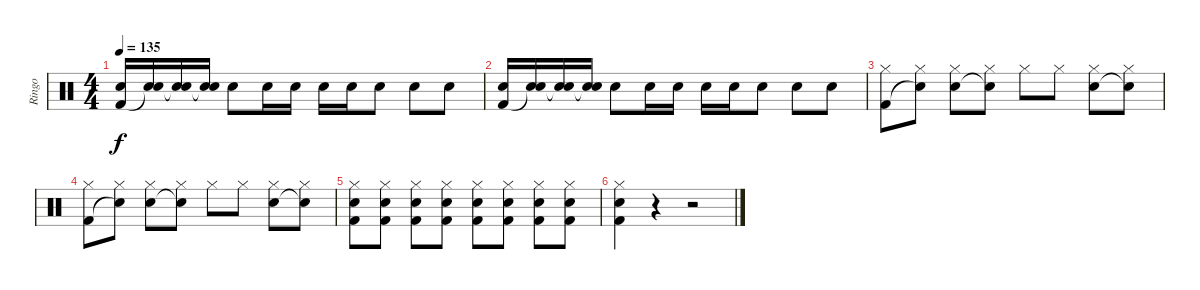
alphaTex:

\track ("Ringo" "Ringo") {instrument percussion}
\staff {score}
\articulation defaults
\ts (4 4)
\tempo 135
\clef neutral
\ks c
("Snare (hit) 2" "Kick (hit) 2").16{dy f volume 15 balance 4} ("Snare (hit) 2" "Snare (hit)"{t}).16 ("Snare (hit) 2" "Snare (hit)"{t}).16 ("Snare (hit) 2" "Snare (hit)"{t}).16 "Snare (hit) 2".8{balance 6} "Snare (hit) 2".16 "Snare (hit) 2".16 "Snare (hit) 2".16{balance 10} "Snare (hit) 2".16 "Snare (hit) 2".8 "Snare (hit) 2".8{balance 12} "Snare (hit) 2".8 |
("Snare (hit) 2" "Kick (hit) 2").16{volume 15 balance 4} ("Snare (hit) 2" "Snare (hit)"{t}).16 ("Snare (hit) 2" "Snare (hit)"{t}).16 ("Snare (hit) 2" "Snare (hit)"{t}).16 "Snare (hit) 2".8{balance 6} "Snare (hit) 2".16 "Snare (hit) 2".16 "Snare (hit) 2".16{balance 10} "Snare (hit) 2".16 "Snare (hit) 2".8 "Snare (hit) 2".8{balance 12} "Snare (hit) 2".8 |
("Hi-Hat (closed)" "Kick (hit) 2").8 ("Hi-Hat (closed)" "Snare (hit)"{t}).8 ("Hi-Hat (closed)" "Snare (hit) 2").8 ("Hi-Hat (closed)" "Snare (hit)"{t}).8 "Hi-Hat (closed)".8 "Hi-Hat (closed)".8 ("Hi-Hat (closed)" "Snare (hit) 2").8 ("Hi-Hat (closed)" "Snare (hit)"{t}).8 |
("Hi-Hat (closed)" "Kick (hit) 2").8 ("Hi-Hat (closed)" "Snare (hit)"{t}).8 ("Hi-Hat (closed)" "Snare (hit) 2").8 ("Hi-Hat (closed)" "Snare (hit)"{t}).8 "Hi-Hat (closed)".8 "Hi-Hat (closed)".8 ("Hi-Hat (closed)" "Snare (hit) 2").8 ("Hi-Hat (closed)" "Snare (hit)"{t}).8 |
("Hi-Hat (closed)" "Snare (hit) 2" "Kick (hit) 2").8{volume 16 balance 0} ("Hi-Hat (closed)" "Snare (hit) 2" "Kick (hit) 2").8 ("Hi-Hat (closed)" "Snare (hit) 2" "Kick (hit) 2").8{balance 4} ("Hi-Hat (closed)" "Snare (hit) 2" "Kick (hit) 2").8 ("Hi-Hat (closed)" "Snare (hit) 2" "Kick (hit) 2").8{balance 8} ("Hi-Hat (closed)" "Snare (hit) 2" "Kick (hit) 2").8 ("Hi-Hat (closed)" "Snare (hit) 2" "Kick (hit) 2").8{balance 12} ("Hi-Hat (closed)" "Snare (hit) 2" "Kick (hit) 2").8 |
("Hi-Hat (closed)" "Snare (hit) 2" "Kick (hit) 2").4{balance 16} r.4 r.2
